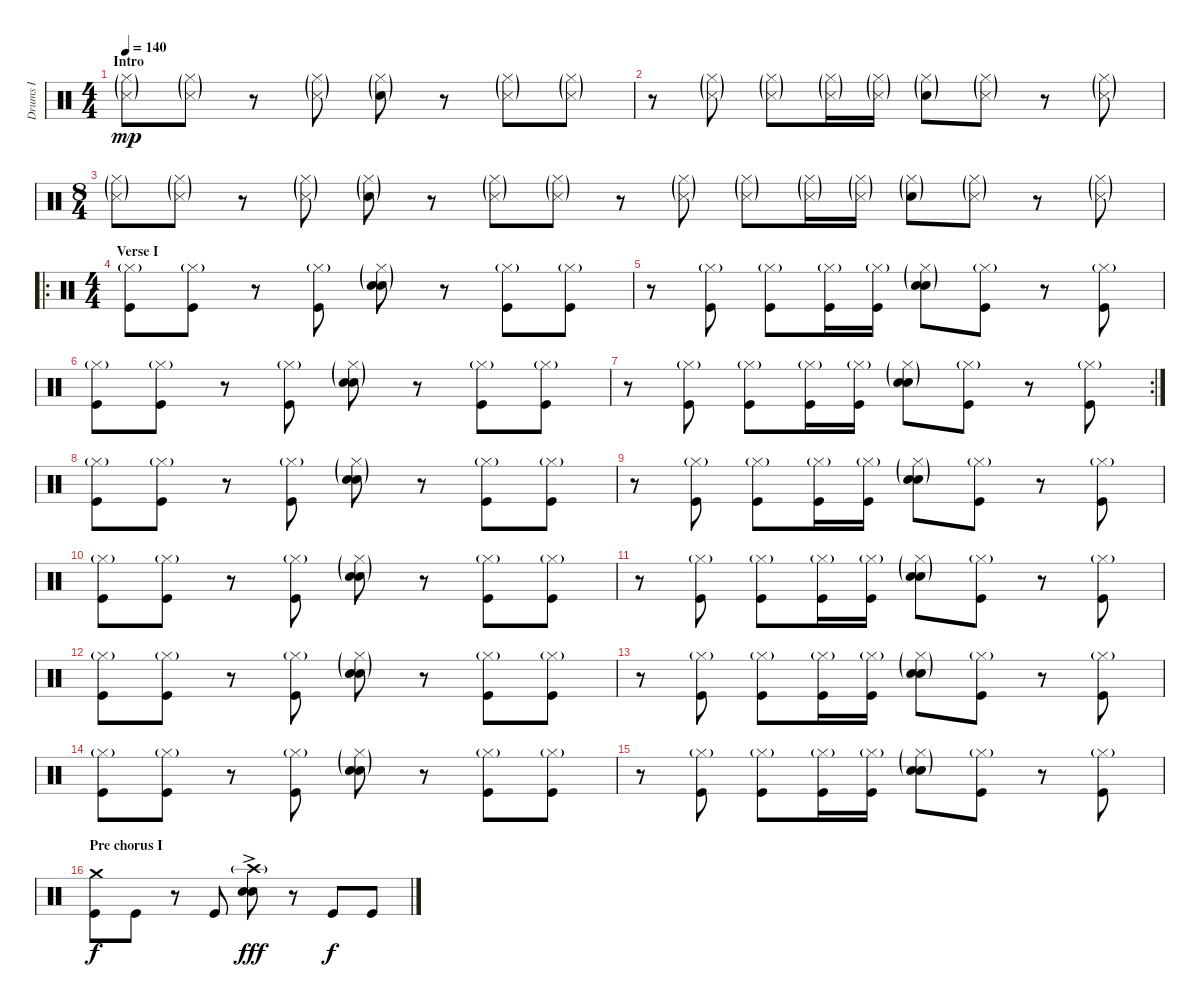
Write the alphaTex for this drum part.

\track ("Drums I" "Drums I") {instrument percussion}
\staff {score}
\articulation defaults
\ts (4 4)
\section ("" "Intro")
\tempo 140
\clef neutral
\ks c
("Hi-Hat (closed)"{g} "Snare (side stick) 3"{g}).8{dy mp} ("Hi-Hat (closed)"{g} "Snare (side stick) 3"{g}).8 r.8 ("Hi-Hat (closed)"{g} "Snare (side stick) 3"{g}).8 ("Hi-Hat (closed)"{g} "Hand Clap (hit)"{g}).8 r.8 ("Hi-Hat (closed)"{g} "Snare (side stick) 3"{g}).8 ("Hi-Hat (closed)"{g} "Snare (side stick) 3"{g}).8 |
r.8 ("Hi-Hat (closed)"{g} "Snare (side stick) 3"{g}).8 ("Hi-Hat (closed)"{g} "Snare (side stick) 3"{g}).8 ("Hi-Hat (closed)"{g} "Snare (side stick) 3"{g}).16 ("Hi-Hat (closed)"{g} "Snare (side stick) 3"{g}).16 ("Hi-Hat (closed)"{g} "Hand Clap (hit)"{g}).8 ("Hi-Hat (closed)"{g} "Snare (side stick) 3"{g}).8 r.8 ("Hi-Hat (closed)"{g} "Snare (side stick) 3"{g}).8 |
\ts (8 4)
("Hi-Hat (closed)"{g} "Snare (side stick) 3"{g}).8 ("Hi-Hat (closed)"{g} "Snare (side stick) 3"{g}).8 r.8 ("Hi-Hat (closed)"{g} "Snare (side stick) 3"{g}).8 ("Hi-Hat (closed)"{g} "Hand Clap (hit)"{g}).8 r.8 ("Hi-Hat (closed)"{g} "Snare (side stick) 3"{g}).8 ("Hi-Hat (closed)"{g} "Snare (side stick) 3"{g}).8 r.8 ("Hi-Hat (closed)"{g} "Snare (side stick) 3"{g}).8 ("Hi-Hat (closed)"{g} "Snare (side stick) 3"{g}).8 ("Hi-Hat (closed)"{g} "Snare (side stick) 3"{g}).16 ("Hi-Hat (closed)"{g} "Snare (side stick) 3"{g}).16 ("Hi-Hat (closed)"{g} "Hand Clap (hit)"{g}).8 ("Hi-Hat (closed)"{g} "Snare (side stick) 3"{g}).8 r.8 ("Hi-Hat (closed)"{g} "Snare (side stick) 3"{g}).8 |
\ro
\ts (4 4)
\section ("" "Verse I")
("Hi-Hat (closed)"{g} "Kick (hit)").8 ("Hi-Hat (closed)"{g} "Kick (hit)").8 r.8 ("Hi-Hat (closed)"{g} "Kick (hit)").8 ("Hi-Hat (closed)"{g} "Snare (hit) 2"{g} "Hand Clap (hit)").8 r.8 ("Hi-Hat (closed)"{g} "Kick (hit)").8 ("Hi-Hat (closed)"{g} "Kick (hit)").8 |
r.8 ("Hi-Hat (closed)"{g} "Kick (hit)").8 ("Hi-Hat (closed)"{g} "Kick (hit)").8 ("Hi-Hat (closed)"{g} "Kick (hit)").16 ("Hi-Hat (closed)"{g} "Kick (hit)").16 ("Hi-Hat (closed)"{g} "Snare (hit) 2"{g} "Hand Clap (hit)").8 ("Hi-Hat (closed)"{g} "Kick (hit)").8 r.8 ("Hi-Hat (closed)"{g} "Kick (hit)").8 |
("Hi-Hat (closed)"{g} "Kick (hit)").8 ("Hi-Hat (closed)"{g} "Kick (hit)").8 r.8 ("Hi-Hat (closed)"{g} "Kick (hit)").8 ("Hi-Hat (closed)"{g} "Snare (hit) 2"{g} "Hand Clap (hit)").8 r.8 ("Hi-Hat (closed)"{g} "Kick (hit)").8 ("Hi-Hat (closed)"{g} "Kick (hit)").8 |
\rc 2
r.8 ("Hi-Hat (closed)"{g} "Kick (hit)").8 ("Hi-Hat (closed)"{g} "Kick (hit)").8 ("Hi-Hat (closed)"{g} "Kick (hit)").16 ("Hi-Hat (closed)"{g} "Kick (hit)").16 ("Hi-Hat (closed)"{g} "Snare (hit) 2"{g} "Hand Clap (hit)").8 ("Hi-Hat (closed)"{g} "Kick (hit)").8 r.8 ("Hi-Hat (closed)"{g} "Kick (hit)").8 |
("Hi-Hat (closed)"{g} "Kick (hit)").8 ("Hi-Hat (closed)"{g} "Kick (hit)").8 r.8 ("Hi-Hat (closed)"{g} "Kick (hit)").8 ("Hi-Hat (closed)"{g} "Snare (hit) 2"{g} "Hand Clap (hit)").8 r.8 ("Hi-Hat (closed)"{g} "Kick (hit)").8 ("Hi-Hat (closed)"{g} "Kick (hit)").8 |
r.8 ("Hi-Hat (closed)"{g} "Kick (hit)").8 ("Hi-Hat (closed)"{g} "Kick (hit)").8 ("Hi-Hat (closed)"{g} "Kick (hit)").16 ("Hi-Hat (closed)"{g} "Kick (hit)").16 ("Hi-Hat (closed)"{g} "Snare (hit) 2"{g} "Hand Clap (hit)").8 ("Hi-Hat (closed)"{g} "Kick (hit)").8 r.8 ("Hi-Hat (closed)"{g} "Kick (hit)").8 |
("Hi-Hat (closed)"{g} "Kick (hit)").8 ("Hi-Hat (closed)"{g} "Kick (hit)").8 r.8 ("Hi-Hat (closed)"{g} "Kick (hit)").8 ("Hi-Hat (closed)"{g} "Snare (hit) 2"{g} "Hand Clap (hit)").8 r.8 ("Hi-Hat (closed)"{g} "Kick (hit)").8 ("Hi-Hat (closed)"{g} "Kick (hit)").8 |
r.8 ("Hi-Hat (closed)"{g} "Kick (hit)").8 ("Hi-Hat (closed)"{g} "Kick (hit)").8 ("Hi-Hat (closed)"{g} "Kick (hit)").16 ("Hi-Hat (closed)"{g} "Kick (hit)").16 ("Hi-Hat (closed)"{g} "Snare (hit) 2"{g} "Hand Clap (hit)").8 ("Hi-Hat (closed)"{g} "Kick (hit)").8 r.8 ("Hi-Hat (closed)"{g} "Kick (hit)").8 |
("Hi-Hat (closed)"{g} "Kick (hit)").8 ("Hi-Hat (closed)"{g} "Kick (hit)").8 r.8 ("Hi-Hat (closed)"{g} "Kick (hit)").8 ("Hi-Hat (closed)"{g} "Snare (hit) 2"{g} "Hand Clap (hit)").8 r.8 ("Hi-Hat (closed)"{g} "Kick (hit)").8 ("Hi-Hat (closed)"{g} "Kick (hit)").8 |
r.8 ("Hi-Hat (closed)"{g} "Kick (hit)").8 ("Hi-Hat (closed)"{g} "Kick (hit)").8 ("Hi-Hat (closed)"{g} "Kick (hit)").16 ("Hi-Hat (closed)"{g} "Kick (hit)").16 ("Hi-Hat (closed)"{g} "Snare (hit) 2"{g} "Hand Clap (hit)").8 ("Hi-Hat (closed)"{g} "Kick (hit)").8 r.8 ("Hi-Hat (closed)"{g} "Kick (hit)").8 |
("Hi-Hat (closed)"{g} "Kick (hit)").8 ("Hi-Hat (closed)"{g} "Kick (hit)").8 r.8 ("Hi-Hat (closed)"{g} "Kick (hit)").8 ("Hi-Hat (closed)"{g} "Snare (hit) 2"{g} "Hand Clap (hit)").8 r.8 ("Hi-Hat (closed)"{g} "Kick (hit)").8 ("Hi-Hat (closed)"{g} "Kick (hit)").8 |
r.8 ("Hi-Hat (closed)"{g} "Kick (hit)").8 ("Hi-Hat (closed)"{g} "Kick (hit)").8 ("Hi-Hat (closed)"{g} "Kick (hit)").16 ("Hi-Hat (closed)"{g} "Kick (hit)").16 ("Hi-Hat (closed)"{g} "Snare (hit) 2"{g} "Hand Clap (hit)").8 ("Hi-Hat (closed)"{g} "Kick (hit)").8 r.8 ("Hi-Hat (closed)"{g} "Kick (hit)").8 |
\section ("" "Pre chorus I")
("Crash medium (hit)" "Kick (hit)").8{dy f} "Kick (hit)".8 r.8 "Kick (hit)".8 ("Crash high (hit)"{g} "Electric Snare (hit)" "Snare (hit) 2"{ac}).8{dy fff} r.8 "Kick (hit)".8{dy f} "Kick (hit)".8
